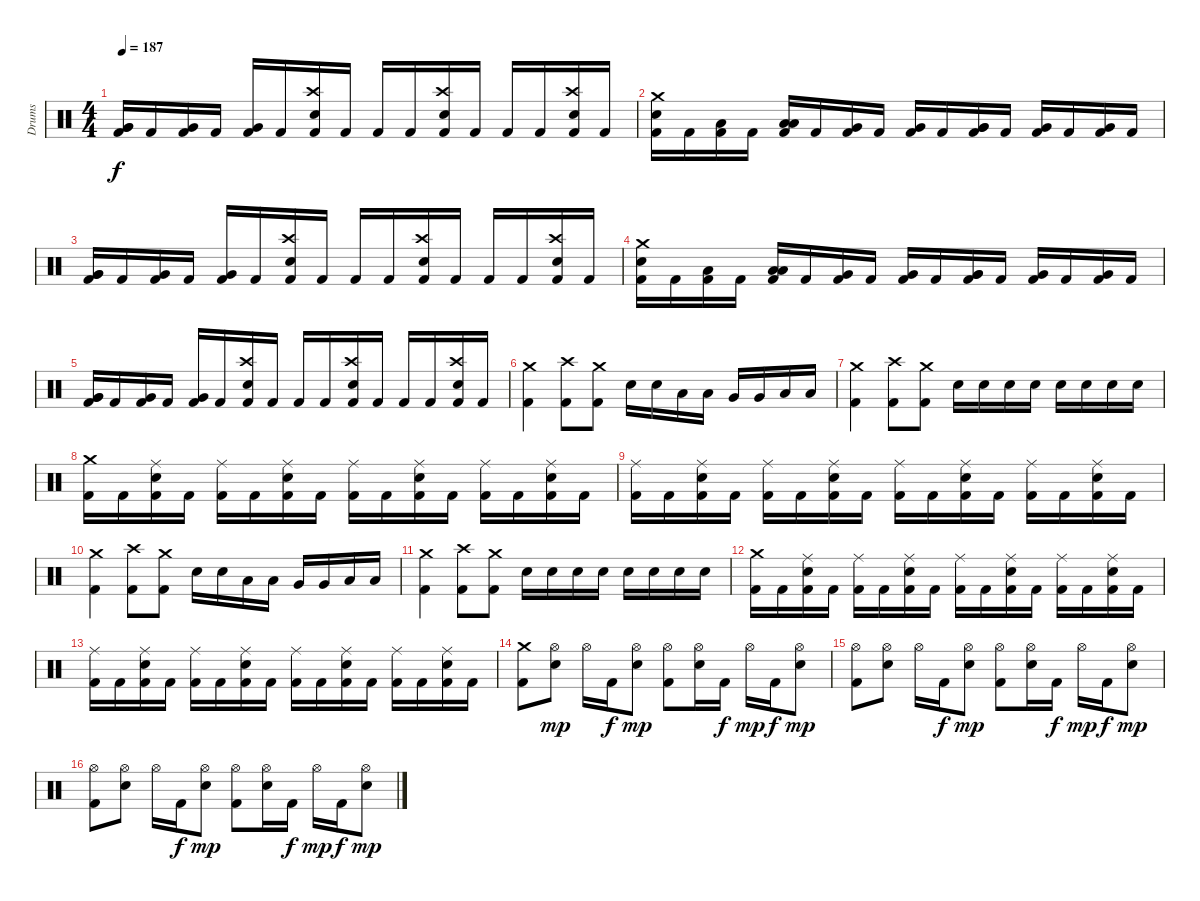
\track ("Drums" "Drums") {instrument percussion}
\staff {score}
\articulation defaults
\ts (4 4)
\tempo 187
\clef neutral
\ks c
("Very Low Tom (hit)" "Very Low Tom (hit)" "Kick (hit) 2").16{dy f} "Kick (hit) 2".16 ("Very Low Tom (hit)" "Kick (hit) 2").16 "Kick (hit) 2".16 ("Very Low Tom (hit)" "Kick (hit) 2").16 "Kick (hit) 2".16 ("Crash high (hit)" "Snare (hit) 2" "Kick (hit) 2").16 "Kick (hit) 2".16 "Kick (hit) 2".16 "Kick (hit) 2".16 ("Crash high (hit)" "Snare (hit) 2" "Kick (hit) 2").16 "Kick (hit) 2".16 "Kick (hit) 2".16 "Kick (hit) 2".16 ("Crash high (hit)" "Snare (hit) 2" "Kick (hit) 2").16 "Kick (hit) 2".16 |
("Crash medium (hit)" "Snare (hit) 2" "Kick (hit) 2").16 "Kick (hit) 2".16 ("Low Floor Tom (hit)" "Kick (hit) 2").16 "Kick (hit) 2".16 ("Low Floor Tom (hit)" "Low Floor Tom (hit)" "Kick (hit) 2").16 "Kick (hit) 2".16 ("Very Low Tom (hit)" "Kick (hit) 2").16 "Kick (hit) 2".16 ("Very Low Tom (hit)" "Kick (hit) 2").16 "Kick (hit) 2".16 ("Very Low Tom (hit)" "Very Low Tom (hit)" "Kick (hit) 2").16 "Kick (hit) 2".16 ("Very Low Tom (hit)" "Kick (hit) 2").16 "Kick (hit) 2".16 ("Very Low Tom (hit)" "Kick (hit) 2").16 "Kick (hit) 2".16 |
("Very Low Tom (hit)" "Very Low Tom (hit)" "Kick (hit) 2").16 "Kick (hit) 2".16 ("Very Low Tom (hit)" "Kick (hit) 2").16 "Kick (hit) 2".16 ("Very Low Tom (hit)" "Kick (hit) 2").16 "Kick (hit) 2".16 ("Crash high (hit)" "Snare (hit) 2" "Kick (hit) 2").16 "Kick (hit) 2".16 "Kick (hit) 2".16 "Kick (hit) 2".16 ("Crash high (hit)" "Snare (hit) 2" "Kick (hit) 2").16 "Kick (hit) 2".16 "Kick (hit) 2".16 "Kick (hit) 2".16 ("Crash high (hit)" "Snare (hit) 2" "Kick (hit) 2").16 "Kick (hit) 2".16 |
("Crash medium (hit)" "Snare (hit) 2" "Kick (hit) 2").16 "Kick (hit) 2".16 ("Low Floor Tom (hit)" "Kick (hit) 2").16 "Kick (hit) 2".16 ("Low Floor Tom (hit)" "Low Floor Tom (hit)" "Kick (hit) 2").16 "Kick (hit) 2".16 ("Very Low Tom (hit)" "Kick (hit) 2").16 "Kick (hit) 2".16 ("Very Low Tom (hit)" "Kick (hit) 2").16 "Kick (hit) 2".16 ("Very Low Tom (hit)" "Very Low Tom (hit)" "Kick (hit) 2").16 "Kick (hit) 2".16 ("Very Low Tom (hit)" "Kick (hit) 2").16 "Kick (hit) 2".16 ("Very Low Tom (hit)" "Kick (hit) 2").16 "Kick (hit) 2".16 |
("Very Low Tom (hit)" "Very Low Tom (hit)" "Kick (hit) 2").16 "Kick (hit) 2".16 ("Very Low Tom (hit)" "Kick (hit) 2").16 "Kick (hit) 2".16 ("Very Low Tom (hit)" "Kick (hit) 2").16 "Kick (hit) 2".16 ("Crash high (hit)" "Snare (hit) 2" "Kick (hit) 2").16 "Kick (hit) 2".16 "Kick (hit) 2".16 "Kick (hit) 2".16 ("Crash high (hit)" "Snare (hit) 2" "Kick (hit) 2").16 "Kick (hit) 2".16 "Kick (hit) 2".16 "Kick (hit) 2".16 ("Crash high (hit)" "Snare (hit) 2" "Kick (hit) 2").16 "Kick (hit) 2".16 |
("Crash medium (hit)" "Kick (hit) 2").4 ("Crash high (hit)" "Kick (hit) 2").8 ("Crash medium (hit)" "Kick (hit) 2").8 "Snare (hit) 2".16 "Snare (hit) 2".16 "Low Tom (hit)".16 "Low Tom (hit)".16 "Very Low Tom (hit)".16 "Very Low Tom (hit)".16 "Low Floor Tom (hit)".16 "Low Floor Tom (hit)".16 |
("Crash medium (hit)" "Kick (hit) 2").4 ("Crash high (hit)" "Kick (hit) 2").8 ("Crash medium (hit)" "Kick (hit) 2").8 "Snare (hit) 2".16 "Snare (hit) 2".16 "Snare (hit) 2".16 "Snare (hit) 2".16 "Snare (hit) 2".16 "Snare (hit) 2".16 "Snare (hit) 2".16 "Snare (hit) 2".16 |
("Crash medium (hit)" "Kick (hit) 2").16 "Kick (hit) 2".16 ("Ride (middle)" "Snare (hit) 2" "Kick (hit) 2").16 "Kick (hit) 2".16 ("Ride (middle)" "Kick (hit) 2").16 "Kick (hit) 2".16 ("Ride (middle)" "Snare (hit) 2" "Kick (hit) 2").16 "Kick (hit) 2".16 ("Ride (middle)" "Kick (hit) 2").16 "Kick (hit) 2".16 ("Ride (middle)" "Snare (hit) 2" "Kick (hit) 2").16 "Kick (hit) 2".16 ("Ride (middle)" "Kick (hit) 2").16 "Kick (hit) 2".16 ("Ride (middle)" "Snare (hit) 2" "Kick (hit) 2").16 "Kick (hit) 2".16 |
("Ride (middle)" "Kick (hit) 2").16 "Kick (hit) 2".16 ("Ride (middle)" "Snare (hit) 2" "Kick (hit) 2").16 "Kick (hit) 2".16 ("Ride (middle)" "Kick (hit) 2").16 "Kick (hit) 2".16 ("Ride (middle)" "Snare (hit) 2" "Kick (hit) 2").16 "Kick (hit) 2".16 ("Ride (middle)" "Kick (hit) 2").16 "Kick (hit) 2".16 ("Ride (middle)" "Snare (hit) 2" "Kick (hit) 2").16 "Kick (hit) 2".16 ("Ride (middle)" "Kick (hit) 2").16 "Kick (hit) 2".16 ("Ride (middle)" "Snare (hit) 2" "Kick (hit) 2").16 "Kick (hit) 2".16 |
("Crash medium (hit)" "Kick (hit) 2").4 ("Crash high (hit)" "Kick (hit) 2").8 ("Crash medium (hit)" "Kick (hit) 2").8 "Snare (hit) 2".16 "Snare (hit) 2".16 "Low Tom (hit)".16 "Low Tom (hit)".16 "Very Low Tom (hit)".16 "Very Low Tom (hit)".16 "Low Floor Tom (hit)".16 "Low Floor Tom (hit)".16 |
("Crash medium (hit)" "Kick (hit) 2").4 ("Crash high (hit)" "Kick (hit) 2").8 ("Crash medium (hit)" "Kick (hit) 2").8 "Snare (hit) 2".16 "Snare (hit) 2".16 "Snare (hit) 2".16 "Snare (hit) 2".16 "Snare (hit) 2".16 "Snare (hit) 2".16 "Snare (hit) 2".16 "Snare (hit) 2".16 |
("Crash medium (hit)" "Kick (hit) 2").16 "Kick (hit) 2".16 ("Ride (middle)" "Snare (hit) 2" "Kick (hit) 2").16 "Kick (hit) 2".16 ("Ride (middle)" "Kick (hit) 2").16 "Kick (hit) 2".16 ("Ride (middle)" "Snare (hit) 2" "Kick (hit) 2").16 "Kick (hit) 2".16 ("Ride (middle)" "Kick (hit) 2").16 "Kick (hit) 2".16 ("Ride (middle)" "Snare (hit) 2" "Kick (hit) 2").16 "Kick (hit) 2".16 ("Ride (middle)" "Kick (hit) 2").16 "Kick (hit) 2".16 ("Ride (middle)" "Snare (hit) 2" "Kick (hit) 2").16 "Kick (hit) 2".16 |
("Ride (middle)" "Kick (hit) 2").16 "Kick (hit) 2".16 ("Ride (middle)" "Snare (hit) 2" "Kick (hit) 2").16 "Kick (hit) 2".16 ("Ride (middle)" "Kick (hit) 2").16 "Kick (hit) 2".16 ("Ride (middle)" "Snare (hit) 2" "Kick (hit) 2").16 "Kick (hit) 2".16 ("Ride (middle)" "Kick (hit) 2").16 "Kick (hit) 2".16 ("Ride (middle)" "Snare (hit) 2" "Kick (hit) 2").16 "Kick (hit) 2".16 ("Ride (middle)" "Kick (hit) 2").16 "Kick (hit) 2".16 ("Ride (middle)" "Snare (hit) 2" "Kick (hit) 2").16 "Kick (hit) 2".16 |
("Crash medium (hit)" "Kick (hit) 2").8 ("Hi-Hat (open)" "Snare (hit) 2").8{dy mp} "Hi-Hat (open)".16 "Kick (hit) 2".16{dy f} ("Hi-Hat (open)" "Snare (hit) 2").8{dy mp} ("Hi-Hat (open)" "Kick (hit) 2").8 ("Hi-Hat (open)" "Snare (hit) 2").16 "Kick (hit) 2".16{dy f} "Hi-Hat (open)".16{dy mp} "Kick (hit) 2".16{dy f} ("Hi-Hat (open)" "Snare (hit) 2").8{dy mp} |
("Hi-Hat (open)" "Kick (hit) 2").8 ("Hi-Hat (open)" "Snare (hit) 2").8 "Hi-Hat (open)".16 "Kick (hit) 2".16{dy f} ("Hi-Hat (open)" "Snare (hit) 2").8{dy mp} ("Hi-Hat (open)" "Kick (hit) 2").8 ("Hi-Hat (open)" "Snare (hit) 2").16 "Kick (hit) 2".16{dy f} "Hi-Hat (open)".16{dy mp} "Kick (hit) 2".16{dy f} ("Hi-Hat (open)" "Snare (hit) 2").8{dy mp} |
("Hi-Hat (open)" "Kick (hit) 2").8 ("Hi-Hat (open)" "Snare (hit) 2").8 "Hi-Hat (open)".16 "Kick (hit) 2".16{dy f} ("Hi-Hat (open)" "Snare (hit) 2").8{dy mp} ("Hi-Hat (open)" "Kick (hit) 2").8 ("Hi-Hat (open)" "Snare (hit) 2").16 "Kick (hit) 2".16{dy f} "Hi-Hat (open)".16{dy mp} "Kick (hit) 2".16{dy f} ("Hi-Hat (open)" "Snare (hit) 2").8{dy mp}
